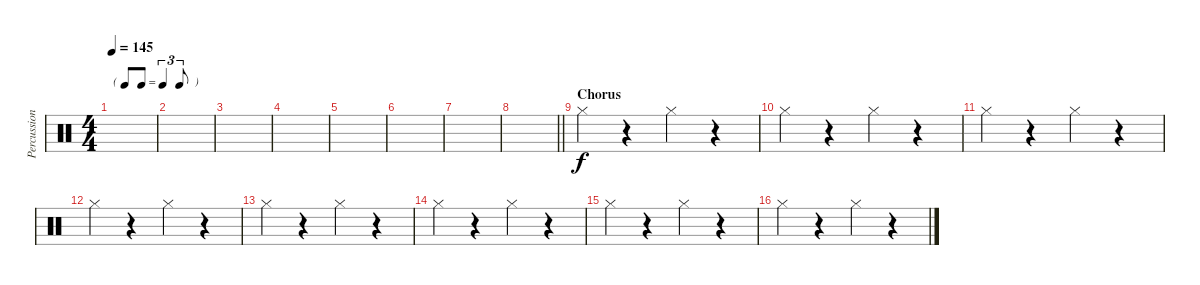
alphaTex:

\track ("Percussion" "Percussion") {instrument percussion}
\staff {score}
\articulation defaults
\ts (4 4)
\tf triplet8th
\tempo 145
\clef neutral
\ks c
|
|
|
|
|
|
|
\barLineRight lightlight
|
\section ("" "Chorus")
"Hi-Hat (closed)".4 r.4 "Hi-Hat (closed)".4 r.4 |
"Hi-Hat (closed)".4 r.4 "Hi-Hat (closed)".4 r.4 |
"Hi-Hat (closed)".4 r.4 "Hi-Hat (closed)".4 r.4 |
"Hi-Hat (closed)".4 r.4 "Hi-Hat (closed)".4 r.4 |
"Hi-Hat (closed)".4 r.4 "Hi-Hat (closed)".4 r.4 |
"Hi-Hat (closed)".4 r.4 "Hi-Hat (closed)".4 r.4 |
"Hi-Hat (closed)".4 r.4 "Hi-Hat (closed)".4 r.4 |
"Hi-Hat (closed)".4 r.4 "Hi-Hat (closed)".4 r.4
